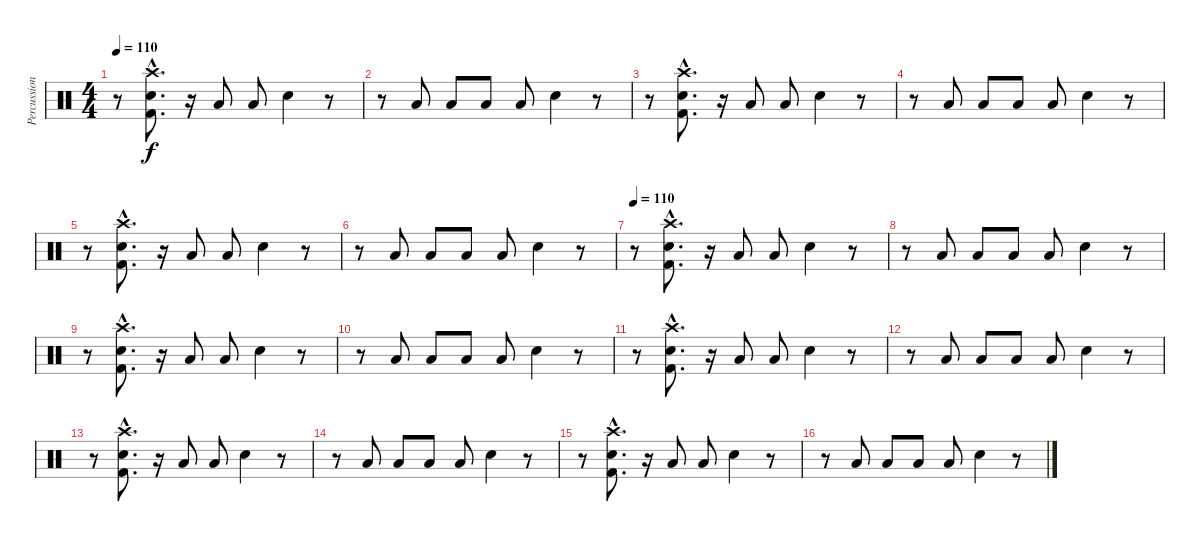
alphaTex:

\track ("Percussioni" "Percussion") {instrument percussion}
\staff {score}
\articulation defaults
\ts (4 4)
\tempo 110
\clef neutral
\ks c
r.8{dy f} ("Crash high (hit)"{hac} "Electric Snare (hit)"{hac} "Kick (hit) 2"{hac}).8{d} r.16 "Low Tom (hit)".8 "Low Tom (hit)".8 "Electric Snare (hit)".4 r.8 |
r.8 "Low Tom (hit)".8 "Low Tom (hit)".8 "Low Tom (hit)".8 "Low Tom (hit)".8 "Electric Snare (hit)".4 r.8 |
r.8 ("Crash high (hit)"{hac} "Electric Snare (hit)"{hac} "Kick (hit) 2"{hac}).8{d} r.16 "Low Tom (hit)".8 "Low Tom (hit)".8 "Electric Snare (hit)".4 r.8 |
r.8 "Low Tom (hit)".8 "Low Tom (hit)".8 "Low Tom (hit)".8 "Low Tom (hit)".8 "Electric Snare (hit)".4 r.8 |
r.8 ("Crash high (hit)"{hac} "Electric Snare (hit)"{hac} "Kick (hit) 2"{hac}).8{d} r.16 "Low Tom (hit)".8 "Low Tom (hit)".8 "Electric Snare (hit)".4 r.8 |
r.8 "Low Tom (hit)".8 "Low Tom (hit)".8 "Low Tom (hit)".8 "Low Tom (hit)".8 "Electric Snare (hit)".4 r.8 |
\tempo 110
r.8 ("Crash high (hit)"{hac} "Electric Snare (hit)"{hac} "Kick (hit) 2"{hac}).8{d} r.16 "Low Tom (hit)".8 "Low Tom (hit)".8 "Electric Snare (hit)".4 r.8 |
r.8 "Low Tom (hit)".8 "Low Tom (hit)".8 "Low Tom (hit)".8 "Low Tom (hit)".8 "Electric Snare (hit)".4 r.8 |
r.8 ("Crash high (hit)"{hac} "Electric Snare (hit)"{hac} "Kick (hit) 2"{hac}).8{d} r.16 "Low Tom (hit)".8 "Low Tom (hit)".8 "Electric Snare (hit)".4 r.8 |
r.8 "Low Tom (hit)".8 "Low Tom (hit)".8 "Low Tom (hit)".8 "Low Tom (hit)".8 "Electric Snare (hit)".4 r.8 |
r.8 ("Crash high (hit)"{hac} "Electric Snare (hit)"{hac} "Kick (hit) 2"{hac}).8{d} r.16 "Low Tom (hit)".8 "Low Tom (hit)".8 "Electric Snare (hit)".4 r.8 |
r.8 "Low Tom (hit)".8 "Low Tom (hit)".8 "Low Tom (hit)".8 "Low Tom (hit)".8 "Electric Snare (hit)".4 r.8 |
r.8 ("Crash high (hit)"{hac} "Electric Snare (hit)"{hac} "Kick (hit) 2"{hac}).8{d} r.16 "Low Tom (hit)".8 "Low Tom (hit)".8 "Electric Snare (hit)".4 r.8 |
r.8 "Low Tom (hit)".8 "Low Tom (hit)".8 "Low Tom (hit)".8 "Low Tom (hit)".8 "Electric Snare (hit)".4 r.8 |
r.8 ("Crash high (hit)"{hac} "Electric Snare (hit)"{hac} "Kick (hit) 2"{hac}).8{d} r.16 "Low Tom (hit)".8 "Low Tom (hit)".8 "Electric Snare (hit)".4 r.8 |
r.8 "Low Tom (hit)".8 "Low Tom (hit)".8 "Low Tom (hit)".8 "Low Tom (hit)".8 "Electric Snare (hit)".4 r.8
